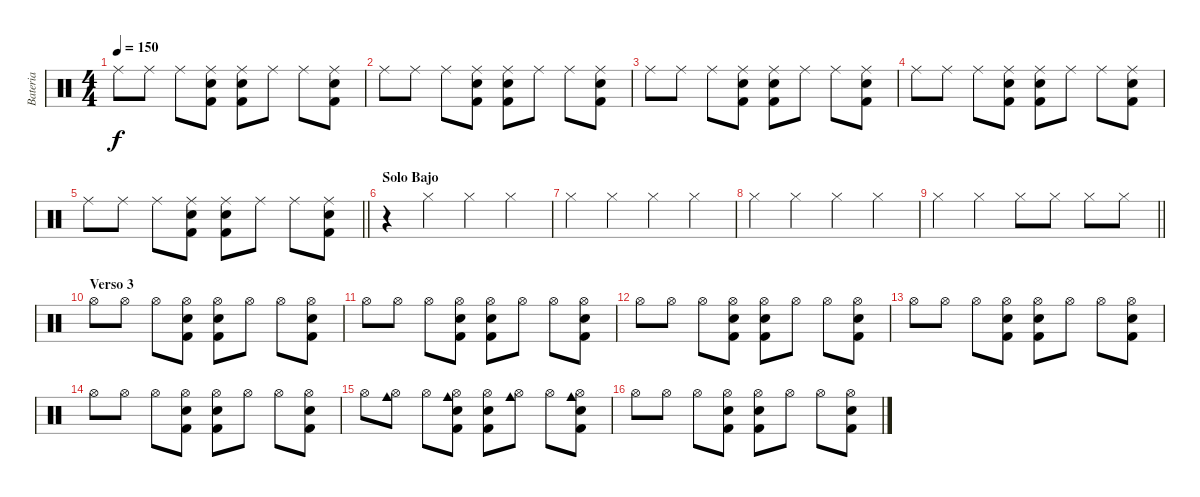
\track ("Bateria" "Bateria") {instrument percussion}
\staff {score}
\articulation defaults
\ts (4 4)
\tempo 150
\clef neutral
\ks c "Ride (middle)".8{dy f} "Ride (middle)".8 "Ride (middle)".8
("Ride (middle)" "Electric Snare (hit)" "Kick (hit) 2").8 ("Ride (middle)" "Electric Snare (hit)" "Kick (hit) 2").8 "Ride (middle)".8 "Ride (middle)".8 ("Ride (middle)" "Electric Snare (hit)" "Kick (hit) 2").8 |
"Ride (middle)".8 "Ride (middle)".8 "Ride (middle)".8 ("Ride (middle)" "Electric Snare (hit)" "Kick (hit) 2").8 ("Ride (middle)" "Electric Snare (hit)" "Kick (hit) 2").8 "Ride (middle)".8 "Ride (middle)".8 ("Ride (middle)" "Electric Snare (hit)" "Kick (hit) 2").8 |
"Ride (middle)".8 "Ride (middle)".8 "Ride (middle)".8 ("Ride (middle)" "Electric Snare (hit)" "Kick (hit) 2").8 ("Ride (middle)" "Electric Snare (hit)" "Kick (hit) 2").8 "Ride (middle)".8 "Ride (middle)".8 ("Ride (middle)" "Electric Snare (hit)" "Kick (hit) 2").8 |
"Ride (middle)".8 "Ride (middle)".8 "Ride (middle)".8 ("Ride (middle)" "Electric Snare (hit)" "Kick (hit) 2").8 ("Ride (middle)" "Electric Snare (hit)" "Kick (hit) 2").8 "Ride (middle)".8 "Ride (middle)".8 ("Ride (middle)" "Electric Snare (hit)" "Kick (hit) 2").8 |
\barLineRight lightlight "Ride (middle)".8 "Ride (middle)".8 "Ride (middle)".8
("Ride (middle)" "Electric Snare (hit)" "Kick (hit) 2").8 ("Ride (middle)" "Electric Snare (hit)" "Kick (hit) 2").8 "Ride (middle)".8 "Ride (middle)".8 ("Ride (middle)" "Electric Snare (hit)" "Kick (hit) 2").8 |
\section ("" "Solo Bajo")
r.4 "Hi-Hat (closed)".4 "Hi-Hat (closed)".4 "Hi-Hat (closed)".4 |
"Hi-Hat (closed)".4 "Hi-Hat (closed)".4 "Hi-Hat (closed)".4 "Hi-Hat (closed)".4 |
"Hi-Hat (closed)".4 "Hi-Hat (closed)".4 "Hi-Hat (closed)".4 "Hi-Hat (closed)".4 |
\barLineRight lightlight "Hi-Hat (closed)".4 "Hi-Hat (closed)".4 "Hi-Hat (closed)".8 "Hi-Hat (closed)".8 "Hi-Hat (closed)".8 "Hi-Hat (closed)".8
|
\section ("" "Verso 3")
"Hi-Hat (open)".8 "Hi-Hat (open)".8 "Hi-Hat (open)".8 ("Hi-Hat (open)" "Electric Snare (hit)" "Kick (hit) 2").8 ("Hi-Hat (open)" "Electric Snare (hit)" "Kick (hit) 2").8 "Hi-Hat (open)".8 "Hi-Hat (open)".8 ("Hi-Hat (open)" "Electric Snare (hit)" "Kick (hit) 2").8 |
"Hi-Hat (open)".8 "Hi-Hat (open)".8 "Hi-Hat (open)".8 ("Hi-Hat (open)" "Electric Snare (hit)" "Kick (hit) 2").8 ("Hi-Hat (open)" "Electric Snare (hit)" "Kick (hit) 2").8 "Hi-Hat (open)".8 "Hi-Hat (open)".8 ("Hi-Hat (open)" "Electric Snare (hit)" "Kick (hit) 2").8 |
"Hi-Hat (open)".8 "Hi-Hat (open)".8 "Hi-Hat (open)".8 ("Hi-Hat (open)" "Electric Snare (hit)" "Kick (hit) 2").8 ("Hi-Hat (open)" "Electric Snare (hit)" "Kick (hit) 2").8 "Hi-Hat (open)".8 "Hi-Hat (open)".8 ("Hi-Hat (open)" "Electric Snare (hit)" "Kick (hit) 2").8 |
"Hi-Hat (open)".8 "Hi-Hat (open)".8 "Hi-Hat (open)".8 ("Hi-Hat (open)" "Electric Snare (hit)" "Kick (hit) 2").8 ("Hi-Hat (open)" "Electric Snare (hit)" "Kick (hit) 2").8 "Hi-Hat (open)".8 "Hi-Hat (open)".8 ("Hi-Hat (open)" "Electric Snare (hit)" "Kick (hit) 2").8 |
"Hi-Hat (open)".8 "Hi-Hat (open)".8 "Hi-Hat (open)".8 ("Hi-Hat (open)" "Electric Snare (hit)" "Kick (hit) 2").8 ("Hi-Hat (open)" "Electric Snare (hit)" "Kick (hit) 2").8 "Hi-Hat (open)".8 "Hi-Hat (open)".8 ("Hi-Hat (open)" "Electric Snare (hit)" "Kick (hit) 2").8 |
"Hi-Hat (open)".8 ("Cowbell medium (hit)" "Hi-Hat (open)").8 "Hi-Hat (open)".8 ("Cowbell medium (hit)" "Hi-Hat (open)" "Electric Snare (hit)" "Kick (hit) 2").8 ("Hi-Hat (open)" "Electric Snare (hit)" "Kick (hit) 2").8 ("Cowbell medium (hit)" "Hi-Hat (open)").8 "Hi-Hat (open)".8 ("Cowbell medium (hit)" "Hi-Hat (open)" "Electric Snare (hit)" "Kick (hit) 2").8 |
"Hi-Hat (open)".8 "Hi-Hat (open)".8 "Hi-Hat (open)".8 ("Hi-Hat (open)" "Electric Snare (hit)" "Kick (hit) 2").8 ("Hi-Hat (open)" "Electric Snare (hit)" "Kick (hit) 2").8 "Hi-Hat (open)".8 "Hi-Hat (open)".8 ("Hi-Hat (open)" "Electric Snare (hit)" "Kick (hit) 2").8
